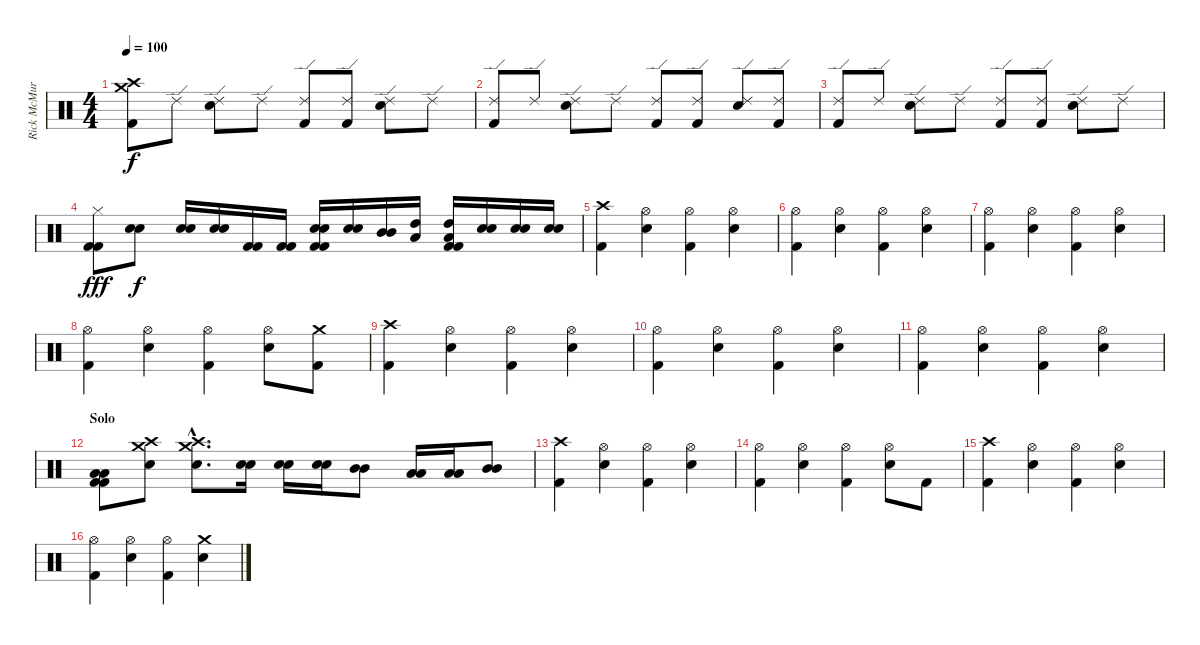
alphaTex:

\track ("Rick McMurray" "Rick McMur") {instrument percussion}
\staff {score}
\articulation defaults
\ts (4 4)
\tempo 100
\clef neutral
\ks c
("Crash medium (hit)" "Crash high (hit)" "Kick (hit) 2").8{dy f} "Ride (edge) 2".8 ("Ride (edge) 2" "Snare (hit) 2").8 "Ride (edge) 2".8 ("Ride (edge) 2" "Kick (hit) 2").8 ("Ride (edge) 2" "Kick (hit) 2").8 ("Ride (edge) 2" "Snare (hit) 2").8 "Ride (edge) 2".8 |
("Ride (edge) 2" "Kick (hit) 2").8 "Ride (edge) 2".8 ("Ride (edge) 2" "Snare (hit) 2").8 "Ride (edge) 2".8 ("Ride (edge) 2" "Kick (hit) 2").8 ("Ride (edge) 2" "Kick (hit) 2").8 ("Ride (edge) 2" "Snare (hit) 2").8 ("Ride (edge) 2" "Kick (hit) 2").8 |
("Ride (edge) 2" "Kick (hit) 2").8 "Ride (edge) 2".8 ("Ride (edge) 2" "Snare (hit) 2").8 "Ride (edge) 2".8 ("Ride (edge) 2" "Kick (hit) 2").8 ("Ride (edge) 2" "Kick (hit) 2").8 ("Ride (edge) 2" "Snare (hit) 2").8 "Ride (edge) 2".8 |
("Hi-Hat (closed)" "Kick (hit) 2" "Kick (hit) 2").8{dy fff} ("Electric Snare (hit)" "Snare (hit) 2").8{dy f} ("Electric Snare (hit)" "Snare (hit) 2").16 ("Electric Snare (hit)" "Snare (hit) 2").16 ("Kick (hit) 2" "Kick (hit) 2").16 ("Kick (hit) 2" "Kick (hit) 2").16 ("Snare (hit) 2" "Snare (hit) 2" "Kick (hit) 2" "Kick (hit) 2").16 ("Snare (hit) 2" "Snare (hit) 2").16 ("Mid Tom (hit)" "Mid Tom (hit)").16 ("Low Floor Tom (hit)" "High Tom (hit)").16 ("Low Floor Tom (hit)" "High Tom (hit)" "Kick (hit) 2" "Kick (hit) 2").16 ("Electric Snare (hit)" "Snare (hit) 2").16 ("Electric Snare (hit)" "Snare (hit) 2").16 ("Electric Snare (hit)" "Snare (hit) 2").16 |
("Crash high (hit)" "Kick (hit) 2").4 ("Hi-Hat (open)" "Snare (hit) 2").4 ("Hi-Hat (open)" "Kick (hit) 2").4 ("Hi-Hat (open)" "Snare (hit) 2").4 |
("Hi-Hat (open)" "Kick (hit) 2").4 ("Hi-Hat (open)" "Snare (hit) 2").4 ("Hi-Hat (open)" "Kick (hit) 2").4 ("Hi-Hat (open)" "Snare (hit) 2").4 |
("Hi-Hat (open)" "Kick (hit) 2").4 ("Hi-Hat (open)" "Snare (hit) 2").4 ("Hi-Hat (open)" "Kick (hit) 2").4 ("Hi-Hat (open)" "Snare (hit) 2").4 |
("Hi-Hat (open)" "Kick (hit) 2").4 ("Hi-Hat (open)" "Snare (hit) 2").4 ("Hi-Hat (open)" "Kick (hit) 2").4 ("Hi-Hat (open)" "Snare (hit) 2").8 ("Crash medium (hit)" "Kick (hit) 2").8 |
("Crash high (hit)" "Kick (hit) 2").4 ("Hi-Hat (open)" "Snare (hit) 2").4 ("Hi-Hat (open)" "Kick (hit) 2").4 ("Hi-Hat (open)" "Snare (hit) 2").4 |
("Hi-Hat (open)" "Kick (hit) 2").4 ("Hi-Hat (open)" "Snare (hit) 2").4 ("Hi-Hat (open)" "Kick (hit) 2").4 ("Hi-Hat (open)" "Snare (hit) 2").4 |
("Hi-Hat (open)" "Kick (hit) 2").4 ("Hi-Hat (open)" "Snare (hit) 2").4 ("Hi-Hat (open)" "Kick (hit) 2").4 ("Hi-Hat (open)" "Snare (hit) 2").4 |
\section ("" "Solo")
("Low Tom (hit)" "Low Tom (hit)" "Kick (hit) 2" "Kick (hit) 2").8 ("Crash high (hit)" "Crash medium (hit)" "Snare (hit) 2").8 ("Crash high (hit)"{hac} "Crash medium (hit)"{hac} "Snare (hit) 2"{hac}).8{d} ("Snare (hit) 2" "Snare (hit) 2").16 ("Snare (hit) 2" "Snare (hit) 2").16 ("Snare (hit) 2" "Snare (hit) 2").16 ("Mid Tom (hit)" "Mid Tom (hit)").8 ("Low Tom (hit)" "Low Tom (hit)").16 ("Low Tom (hit)" "Low Tom (hit)").16 ("Mid Tom (hit)" "Mid Tom (hit)").8 |
("Crash high (hit)" "Kick (hit) 2").4 ("Hi-Hat (open)" "Snare (hit) 2").4 ("Hi-Hat (open)" "Kick (hit) 2").4 ("Hi-Hat (open)" "Snare (hit) 2").4 |
("Hi-Hat (open)" "Kick (hit) 2").4 ("Hi-Hat (open)" "Snare (hit) 2").4 ("Hi-Hat (open)" "Kick (hit) 2").4 ("Hi-Hat (open)" "Snare (hit) 2").8 "Kick (hit) 2".8 |
("Crash high (hit)" "Kick (hit) 2").4 ("Hi-Hat (open)" "Snare (hit) 2").4 ("Hi-Hat (open)" "Kick (hit) 2").4 ("Hi-Hat (open)" "Snare (hit) 2").4 |
("Hi-Hat (open)" "Kick (hit) 2").4 ("Hi-Hat (open)" "Snare (hit) 2").4 ("Hi-Hat (open)" "Kick (hit) 2").4 ("Crash medium (hit)" "Snare (hit) 2").4
